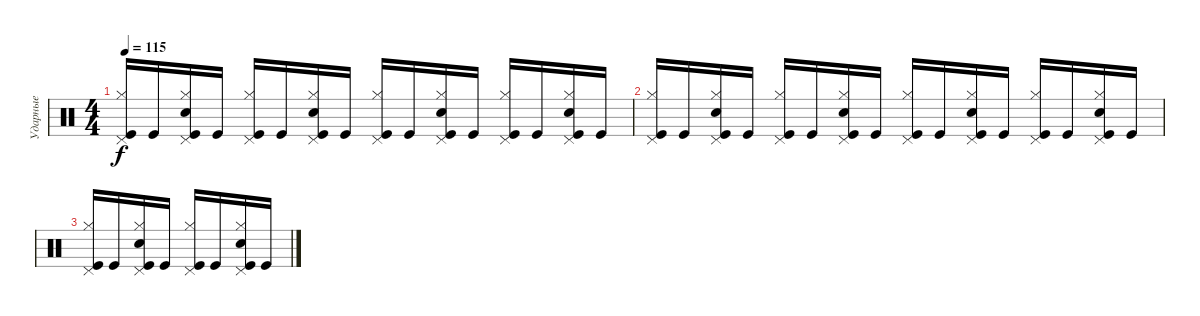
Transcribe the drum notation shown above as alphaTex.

\track ("Ударные" "Ударные") {instrument percussion}
\staff {score}
\articulation defaults
\ts (4 4)
\tempo 115
\clef neutral
\ks c
("Kick (hit)" "Hi-Hat (closed)" "Pedal Hi-Hat (hit)").16{dy f} "Kick (hit)".16 ("Kick (hit)" "Electric Snare (hit)" "Pedal Hi-Hat (hit)" "Hi-Hat (closed)").16 "Kick (hit)".16 ("Kick (hit)" "Hi-Hat (closed)" "Pedal Hi-Hat (hit)").16 "Kick (hit)".16 ("Kick (hit)" "Electric Snare (hit)" "Pedal Hi-Hat (hit)" "Hi-Hat (closed)").16 "Kick (hit)".16 ("Kick (hit)" "Hi-Hat (closed)" "Pedal Hi-Hat (hit)").16 "Kick (hit)".16 ("Kick (hit)" "Hi-Hat (closed)" "Pedal Hi-Hat (hit)" "Electric Snare (hit)").16 "Kick (hit)".16 ("Kick (hit)" "Pedal Hi-Hat (hit)" "Hi-Hat (closed)").16 "Kick (hit)".16 ("Kick (hit)" "Electric Snare (hit)" "Hi-Hat (closed)" "Pedal Hi-Hat (hit)").16 "Kick (hit)".16 |
("Kick (hit)" "Hi-Hat (closed)" "Pedal Hi-Hat (hit)").16 "Kick (hit)".16 ("Kick (hit)" "Electric Snare (hit)" "Pedal Hi-Hat (hit)" "Hi-Hat (closed)").16 "Kick (hit)".16 ("Kick (hit)" "Hi-Hat (closed)" "Pedal Hi-Hat (hit)").16 "Kick (hit)".16 ("Kick (hit)" "Electric Snare (hit)" "Pedal Hi-Hat (hit)" "Hi-Hat (closed)").16 "Kick (hit)".16 ("Kick (hit)" "Hi-Hat (closed)" "Pedal Hi-Hat (hit)").16 "Kick (hit)".16 ("Kick (hit)" "Hi-Hat (closed)" "Pedal Hi-Hat (hit)" "Electric Snare (hit)").16 "Kick (hit)".16 ("Kick (hit)" "Pedal Hi-Hat (hit)" "Hi-Hat (closed)").16 "Kick (hit)".16 ("Kick (hit)" "Electric Snare (hit)" "Hi-Hat (closed)" "Pedal Hi-Hat (hit)").16 "Kick (hit)".16 |
("Kick (hit)" "Hi-Hat (closed)" "Pedal Hi-Hat (hit)").16 "Kick (hit)".16 ("Kick (hit)" "Electric Snare (hit)" "Pedal Hi-Hat (hit)" "Hi-Hat (closed)").16 "Kick (hit)".16 ("Kick (hit)" "Hi-Hat (closed)" "Pedal Hi-Hat (hit)").16 "Kick (hit)".16 ("Kick (hit)" "Electric Snare (hit)" "Pedal Hi-Hat (hit)" "Hi-Hat (closed)").16 "Kick (hit)".16
